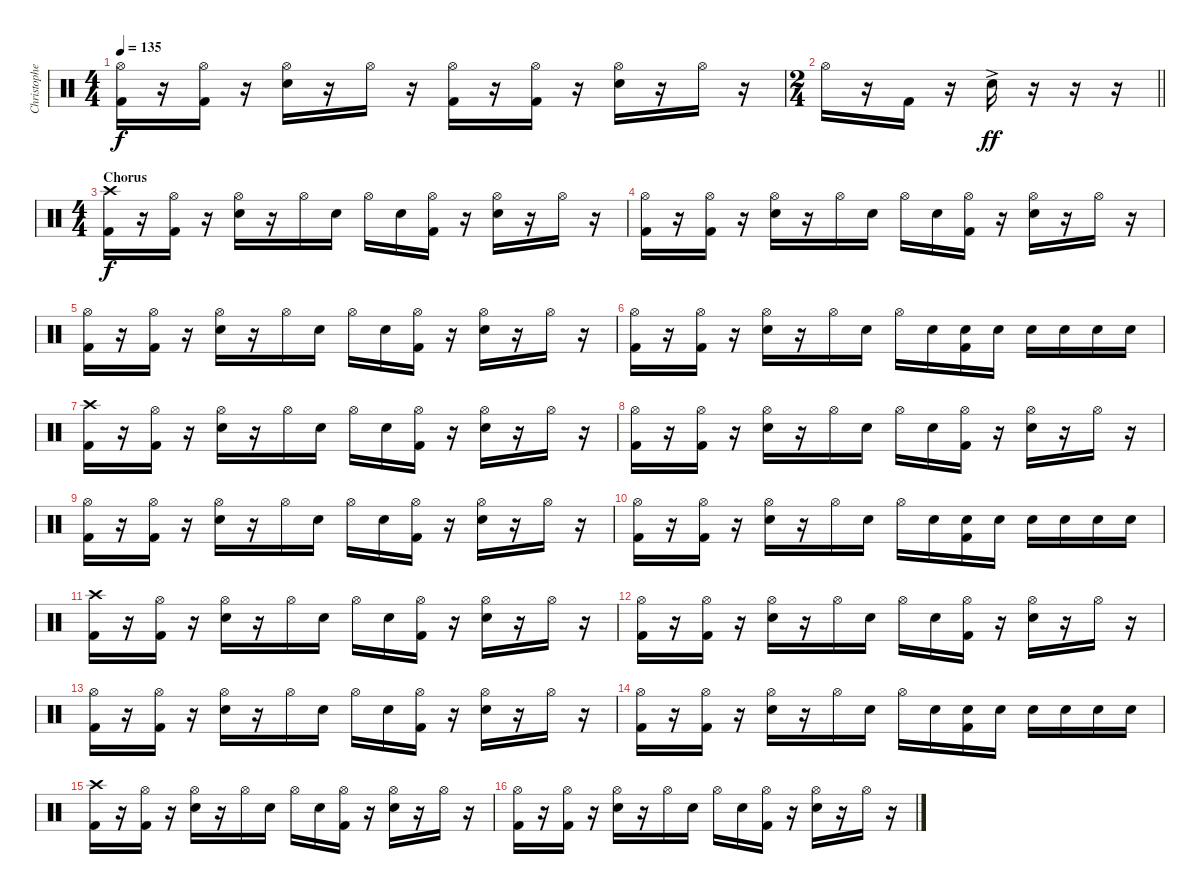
\track ("Christopher - Drums" "Christophe") {instrument percussion}
\staff {score}
\articulation defaults
\ts (4 4)
\tempo 135
\clef neutral
\ks c
("Hi-Hat (open)" "Kick (hit) 2").16{dy f} r.16 ("Hi-Hat (open)" "Kick (hit) 2").16 r.16 ("Hi-Hat (open)" "Electric Snare (hit)").16 r.16 "Hi-Hat (open)".16 r.16 ("Hi-Hat (open)" "Kick (hit) 2").16 r.16 ("Hi-Hat (open)" "Kick (hit) 2").16 r.16 ("Hi-Hat (open)" "Electric Snare (hit)").16 r.16 "Hi-Hat (open)".16 r.16 |
\ts (2 4)
\barLineRight lightlight "Hi-Hat (open)".16
r.16 "Kick (hit) 2".16 r.16 "Electric Snare (hit)"{ac}.16{dy ff} r.16 r.16 r.16 |
\ts (4 4)
\section ("" "Chorus")
("Crash high (hit)" "Kick (hit) 2").16{dy f} r.16 ("Hi-Hat (open)" "Kick (hit) 2").16 r.16 ("Hi-Hat (open)" "Electric Snare (hit)").16 r.16 "Hi-Hat (open)".16 "Electric Snare (hit)".16 "Hi-Hat (open)".16 "Electric Snare (hit)".16 ("Hi-Hat (open)" "Kick (hit) 2").16 r.16 ("Hi-Hat (open)" "Electric Snare (hit)").16 r.16 "Hi-Hat (open)".16 r.16 |
("Hi-Hat (open)" "Kick (hit) 2").16 r.16 ("Hi-Hat (open)" "Kick (hit) 2").16 r.16 ("Hi-Hat (open)" "Electric Snare (hit)").16 r.16 "Hi-Hat (open)".16 "Electric Snare (hit)".16 "Hi-Hat (open)".16 "Electric Snare (hit)".16 ("Hi-Hat (open)" "Kick (hit) 2").16 r.16 ("Hi-Hat (open)" "Electric Snare (hit)").16 r.16 "Hi-Hat (open)".16 r.16 |
("Hi-Hat (open)" "Kick (hit) 2").16 r.16 ("Hi-Hat (open)" "Kick (hit) 2").16 r.16 ("Hi-Hat (open)" "Electric Snare (hit)").16 r.16 "Hi-Hat (open)".16 "Electric Snare (hit)".16 "Hi-Hat (open)".16 "Electric Snare (hit)".16 ("Hi-Hat (open)" "Kick (hit) 2").16 r.16 ("Hi-Hat (open)" "Electric Snare (hit)").16 r.16 "Hi-Hat (open)".16 r.16 |
("Hi-Hat (open)" "Kick (hit) 2").16 r.16 ("Hi-Hat (open)" "Kick (hit) 2").16 r.16 ("Hi-Hat (open)" "Electric Snare (hit)").16 r.16 "Hi-Hat (open)".16 "Electric Snare (hit)".16 "Hi-Hat (open)".16 "Electric Snare (hit)".16 ("Electric Snare (hit)" "Kick (hit) 2").16 "Electric Snare (hit)".16 "Electric Snare (hit)".16 "Electric Snare (hit)".16 "Electric Snare (hit)".16 "Electric Snare (hit)".16 |
("Crash high (hit)" "Kick (hit) 2").16 r.16 ("Hi-Hat (open)" "Kick (hit) 2").16 r.16 ("Hi-Hat (open)" "Electric Snare (hit)").16 r.16 "Hi-Hat (open)".16 "Electric Snare (hit)".16 "Hi-Hat (open)".16 "Electric Snare (hit)".16 ("Hi-Hat (open)" "Kick (hit) 2").16 r.16 ("Hi-Hat (open)" "Electric Snare (hit)").16 r.16 "Hi-Hat (open)".16 r.16 |
("Hi-Hat (open)" "Kick (hit) 2").16 r.16 ("Hi-Hat (open)" "Kick (hit) 2").16 r.16 ("Hi-Hat (open)" "Electric Snare (hit)").16 r.16 "Hi-Hat (open)".16 "Electric Snare (hit)".16 "Hi-Hat (open)".16 "Electric Snare (hit)".16 ("Hi-Hat (open)" "Kick (hit) 2").16 r.16 ("Hi-Hat (open)" "Electric Snare (hit)").16 r.16 "Hi-Hat (open)".16 r.16 |
("Hi-Hat (open)" "Kick (hit) 2").16 r.16 ("Hi-Hat (open)" "Kick (hit) 2").16 r.16 ("Hi-Hat (open)" "Electric Snare (hit)").16 r.16 "Hi-Hat (open)".16 "Electric Snare (hit)".16 "Hi-Hat (open)".16 "Electric Snare (hit)".16 ("Hi-Hat (open)" "Kick (hit) 2").16 r.16 ("Hi-Hat (open)" "Electric Snare (hit)").16 r.16 "Hi-Hat (open)".16 r.16 |
("Hi-Hat (open)" "Kick (hit) 2").16 r.16 ("Hi-Hat (open)" "Kick (hit) 2").16 r.16 ("Hi-Hat (open)" "Electric Snare (hit)").16 r.16 "Hi-Hat (open)".16 "Electric Snare (hit)".16 "Hi-Hat (open)".16 "Electric Snare (hit)".16 ("Electric Snare (hit)" "Kick (hit) 2").16 "Electric Snare (hit)".16 "Electric Snare (hit)".16 "Electric Snare (hit)".16 "Electric Snare (hit)".16 "Electric Snare (hit)".16 |
("Crash high (hit)" "Kick (hit) 2").16 r.16 ("Hi-Hat (open)" "Kick (hit) 2").16 r.16 ("Hi-Hat (open)" "Electric Snare (hit)").16 r.16 "Hi-Hat (open)".16 "Electric Snare (hit)".16 "Hi-Hat (open)".16 "Electric Snare (hit)".16 ("Hi-Hat (open)" "Kick (hit) 2").16 r.16 ("Hi-Hat (open)" "Electric Snare (hit)").16 r.16 "Hi-Hat (open)".16 r.16 |
("Hi-Hat (open)" "Kick (hit) 2").16 r.16 ("Hi-Hat (open)" "Kick (hit) 2").16 r.16 ("Hi-Hat (open)" "Electric Snare (hit)").16 r.16 "Hi-Hat (open)".16 "Electric Snare (hit)".16 "Hi-Hat (open)".16 "Electric Snare (hit)".16 ("Hi-Hat (open)" "Kick (hit) 2").16 r.16 ("Hi-Hat (open)" "Electric Snare (hit)").16 r.16 "Hi-Hat (open)".16 r.16 |
("Hi-Hat (open)" "Kick (hit) 2").16 r.16 ("Hi-Hat (open)" "Kick (hit) 2").16 r.16 ("Hi-Hat (open)" "Electric Snare (hit)").16 r.16 "Hi-Hat (open)".16 "Electric Snare (hit)".16 "Hi-Hat (open)".16 "Electric Snare (hit)".16 ("Hi-Hat (open)" "Kick (hit) 2").16 r.16 ("Hi-Hat (open)" "Electric Snare (hit)").16 r.16 "Hi-Hat (open)".16 r.16 |
("Hi-Hat (open)" "Kick (hit) 2").16 r.16 ("Hi-Hat (open)" "Kick (hit) 2").16 r.16 ("Hi-Hat (open)" "Electric Snare (hit)").16 r.16 "Hi-Hat (open)".16 "Electric Snare (hit)".16 "Hi-Hat (open)".16 "Electric Snare (hit)".16 ("Electric Snare (hit)" "Kick (hit) 2").16 "Electric Snare (hit)".16 "Electric Snare (hit)".16 "Electric Snare (hit)".16 "Electric Snare (hit)".16 "Electric Snare (hit)".16 |
("Crash high (hit)" "Kick (hit) 2").16 r.16 ("Hi-Hat (open)" "Kick (hit) 2").16 r.16 ("Hi-Hat (open)" "Electric Snare (hit)").16 r.16 "Hi-Hat (open)".16 "Electric Snare (hit)".16 "Hi-Hat (open)".16 "Electric Snare (hit)".16 ("Hi-Hat (open)" "Kick (hit) 2").16 r.16 ("Hi-Hat (open)" "Electric Snare (hit)").16 r.16 "Hi-Hat (open)".16 r.16 |
("Hi-Hat (open)" "Kick (hit) 2").16 r.16 ("Hi-Hat (open)" "Kick (hit) 2").16 r.16 ("Hi-Hat (open)" "Electric Snare (hit)").16 r.16 "Hi-Hat (open)".16 "Electric Snare (hit)".16 "Hi-Hat (open)".16 "Electric Snare (hit)".16 ("Hi-Hat (open)" "Kick (hit) 2").16 r.16 ("Hi-Hat (open)" "Electric Snare (hit)").16 r.16 "Hi-Hat (open)".16 r.16
